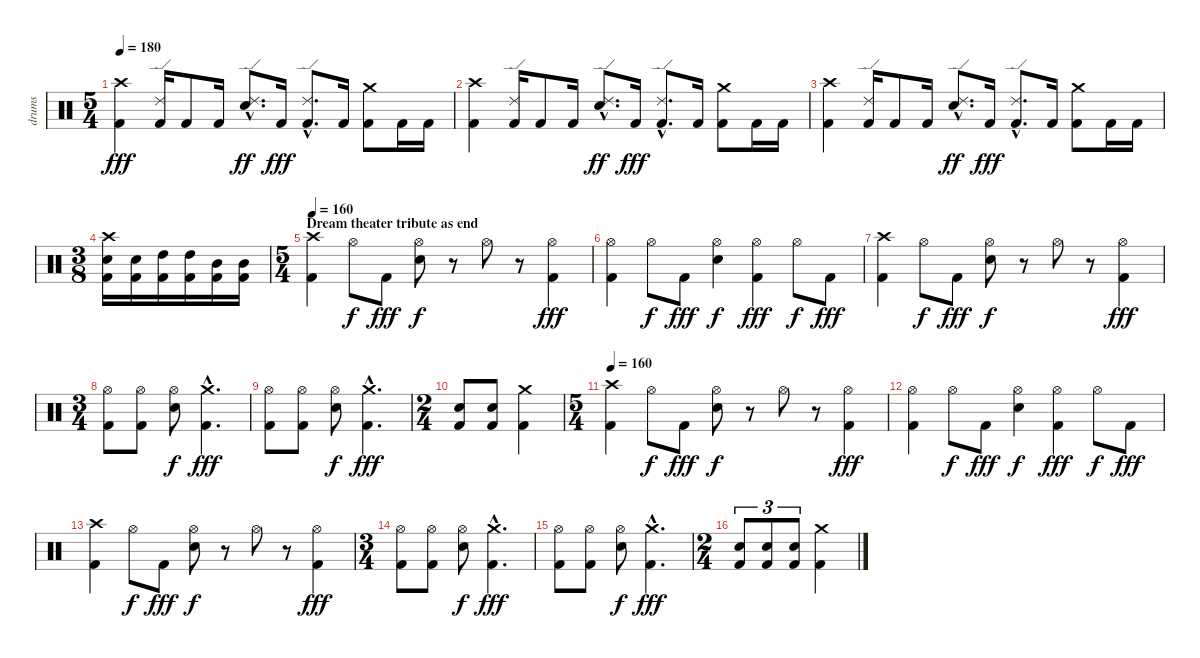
\track ("drums" "drums") {instrument percussion}
\staff {score}
\articulation defaults
\ts (5 4)
\tempo 180
\clef neutral
\ks c
("Crash high (hit)" "Kick (hit) 2").4{dy fff} ("Ride (edge) 2" "Kick (hit) 2").16 "Kick (hit) 2".8 "Kick (hit) 2".16 ("Ride (edge) 2"{hac} "Snare (hit) 2"{hac}).8{d dy ff} "Kick (hit) 2".16{dy fff} ("Ride (edge) 2"{hac} "Kick (hit) 2"{hac}).8{d} "Kick (hit) 2".16 ("Crash medium (hit)" "Kick (hit) 2").8 "Kick (hit) 2".16 "Kick (hit) 2".16 |
("Crash high (hit)" "Kick (hit) 2").4 ("Ride (edge) 2" "Kick (hit) 2").16 "Kick (hit) 2".8 "Kick (hit) 2".16 ("Ride (edge) 2"{hac} "Snare (hit) 2"{hac}).8{d dy ff} "Kick (hit) 2".16{dy fff} ("Ride (edge) 2"{hac} "Kick (hit) 2"{hac}).8{d} "Kick (hit) 2".16 ("Crash medium (hit)" "Kick (hit) 2").8 "Kick (hit) 2".16 "Kick (hit) 2".16 |
("Crash high (hit)" "Kick (hit) 2").4 ("Ride (edge) 2" "Kick (hit) 2").16 "Kick (hit) 2".8 "Kick (hit) 2".16 ("Ride (edge) 2"{hac} "Snare (hit) 2"{hac}).8{d dy ff} "Kick (hit) 2".16{dy fff} ("Ride (edge) 2"{hac} "Kick (hit) 2"{hac}).8{d} "Kick (hit) 2".16 ("Crash medium (hit)" "Kick (hit) 2").8 "Kick (hit) 2".16 "Kick (hit) 2".16 |
\ts (3 8)
("Crash high (hit)" "Snare (hit) 2" "Kick (hit) 2").16 ("Snare (hit) 2" "Kick (hit) 2").16 ("High Tom (hit)" "Kick (hit) 2").16 ("High Tom (hit)" "Kick (hit) 2").16 ("Mid Tom (hit)" "Kick (hit) 2").16 ("Mid Tom (hit)" "Kick (hit) 2").16 |
\ts (5 4)
\section ("" "Dream theater tribute as end")
\tempo 160
("Crash high (hit)" "Kick (hit) 2").4 "Hi-Hat (open)".8{dy f} "Kick (hit) 2".8{dy fff} ("Hi-Hat (open)" "Snare (hit) 2").8{dy f} r.8 "Hi-Hat (open)".8 r.8 ("Hi-Hat (open)" "Kick (hit) 2").4{dy fff} |
("Hi-Hat (open)" "Kick (hit) 2").4 "Hi-Hat (open)".8{dy f} "Kick (hit) 2".8{dy fff} ("Hi-Hat (open)" "Snare (hit) 2").4{dy f} ("Hi-Hat (open)" "Kick (hit) 2").4{dy fff} "Hi-Hat (open)".8{dy f} "Kick (hit) 2".8{dy fff} |
("Crash high (hit)" "Kick (hit) 2").4 "Hi-Hat (open)".8{dy f} "Kick (hit) 2".8{dy fff} ("Hi-Hat (open)" "Snare (hit) 2").8{dy f} r.8 "Hi-Hat (open)".8 r.8 ("Hi-Hat (open)" "Kick (hit) 2").4{dy fff} |
\ts (3 4)
("Hi-Hat (open)" "Kick (hit) 2").8 ("Hi-Hat (open)" "Kick (hit) 2").8 ("Hi-Hat (open)" "Snare (hit) 2").8{dy f} ("Crash medium (hit)"{hac} "Kick (hit) 2"{hac}).4{d dy fff} |
("Hi-Hat (open)" "Kick (hit) 2").8 ("Hi-Hat (open)" "Kick (hit) 2").8 ("Hi-Hat (open)" "Snare (hit) 2").8{dy f} ("Crash medium (hit)"{hac} "Kick (hit) 2"{hac}).4{d dy fff} |
\ts (2 4)
("Snare (hit) 2" "Kick (hit) 2").8 ("Snare (hit) 2" "Kick (hit) 2").8 ("Crash medium (hit)" "Kick (hit) 2").4 |
\ts (5 4)
\tempo 160
("Crash high (hit)" "Kick (hit) 2").4 "Hi-Hat (open)".8{dy f} "Kick (hit) 2".8{dy fff} ("Hi-Hat (open)" "Snare (hit) 2").8{dy f} r.8 "Hi-Hat (open)".8 r.8 ("Hi-Hat (open)" "Kick (hit) 2").4{dy fff} |
("Hi-Hat (open)" "Kick (hit) 2").4 "Hi-Hat (open)".8{dy f} "Kick (hit) 2".8{dy fff} ("Hi-Hat (open)" "Snare (hit) 2").4{dy f} ("Hi-Hat (open)" "Kick (hit) 2").4{dy fff} "Hi-Hat (open)".8{dy f} "Kick (hit) 2".8{dy fff} |
("Crash high (hit)" "Kick (hit) 2").4 "Hi-Hat (open)".8{dy f} "Kick (hit) 2".8{dy fff} ("Hi-Hat (open)" "Snare (hit) 2").8{dy f} r.8 "Hi-Hat (open)".8 r.8 ("Hi-Hat (open)" "Kick (hit) 2").4{dy fff} |
\ts (3 4)
("Hi-Hat (open)" "Kick (hit) 2").8 ("Hi-Hat (open)" "Kick (hit) 2").8 ("Hi-Hat (open)" "Snare (hit) 2").8{dy f} ("Crash medium (hit)"{hac} "Kick (hit) 2"{hac}).4{d dy fff} |
("Hi-Hat (open)" "Kick (hit) 2").8 ("Hi-Hat (open)" "Kick (hit) 2").8 ("Hi-Hat (open)" "Snare (hit) 2").8{dy f} ("Crash medium (hit)"{hac} "Kick (hit) 2"{hac}).4{d dy fff} |
\ts (2 4)
("Snare (hit) 2" "Kick (hit) 2").8{tu (3 2)} ("Snare (hit) 2" "Kick (hit) 2").8{tu (3 2)} ("Snare (hit) 2" "Kick (hit) 2").8{tu (3 2)} ("Crash medium (hit)" "Kick (hit) 2").4
